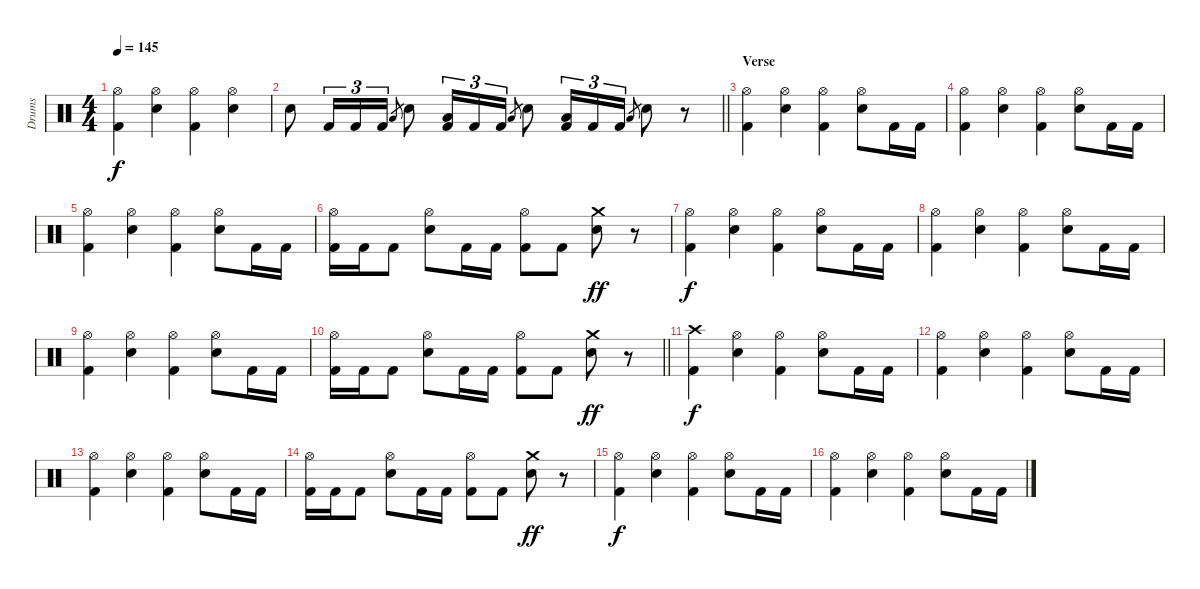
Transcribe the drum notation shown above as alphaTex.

\track ("Drums" "Drums") {instrument percussion}
\staff {score}
\articulation defaults
\ts (4 4)
\tempo 145
\clef neutral
\ks c
("Hi-Hat (open)" "Kick (hit) 2").4{dy f} ("Hi-Hat (open)" "Electric Snare (hit)").4 ("Hi-Hat (open)" "Kick (hit) 2").4 ("Hi-Hat (open)" "Electric Snare (hit)").4 |
\barLineRight lightlight "Electric Snare (hit)".8 "Kick (hit) 2".16{tu (3 2)} "Kick (hit) 2".16{tu (3 2)} "Kick (hit) 2".16{tu (3 2)} "Low Tom (hit)".8{gr} "Electric Snare (hit)".8
("Low Tom (hit)" "Kick (hit) 2").16{tu (3 2)} "Kick (hit) 2".16{tu (3 2)} "Kick (hit) 2".16{tu (3 2)} "Low Tom (hit)".8{gr} "Electric Snare (hit)".8 ("Low Tom (hit)" "Kick (hit) 2").16{tu (3 2)} "Kick (hit) 2".16{tu (3 2)} "Kick (hit) 2".16{tu (3 2)} "Low Tom (hit)".8{gr} "Electric Snare (hit)".8 r.8 |
\section ("" "Verse")
("Hi-Hat (open)" "Kick (hit) 2").4 ("Hi-Hat (open)" "Electric Snare (hit)").4 ("Hi-Hat (open)" "Kick (hit) 2").4 ("Hi-Hat (open)" "Electric Snare (hit)").8 "Kick (hit) 2".16 "Kick (hit) 2".16 |
("Hi-Hat (open)" "Kick (hit) 2").4 ("Hi-Hat (open)" "Electric Snare (hit)").4 ("Hi-Hat (open)" "Kick (hit) 2").4 ("Hi-Hat (open)" "Electric Snare (hit)").8 "Kick (hit) 2".16 "Kick (hit) 2".16 |
("Hi-Hat (open)" "Kick (hit) 2").4 ("Hi-Hat (open)" "Electric Snare (hit)").4 ("Hi-Hat (open)" "Kick (hit) 2").4 ("Hi-Hat (open)" "Electric Snare (hit)").8 "Kick (hit) 2".16 "Kick (hit) 2".16 |
("Hi-Hat (open)" "Kick (hit) 2").16 "Kick (hit) 2".16 "Kick (hit) 2".8 ("Hi-Hat (open)" "Electric Snare (hit)").8 "Kick (hit) 2".16 "Kick (hit) 2".16 ("Hi-Hat (open)" "Kick (hit) 2").8 "Kick (hit) 2".8 ("Crash medium (hit)" "Electric Snare (hit)").8{dy ff} r.8 |
("Hi-Hat (open)" "Kick (hit) 2").4{dy f} ("Hi-Hat (open)" "Electric Snare (hit)").4 ("Hi-Hat (open)" "Kick (hit) 2").4 ("Hi-Hat (open)" "Electric Snare (hit)").8 "Kick (hit) 2".16 "Kick (hit) 2".16 |
("Hi-Hat (open)" "Kick (hit) 2").4 ("Hi-Hat (open)" "Electric Snare (hit)").4 ("Hi-Hat (open)" "Kick (hit) 2").4 ("Hi-Hat (open)" "Electric Snare (hit)").8 "Kick (hit) 2".16 "Kick (hit) 2".16 |
("Hi-Hat (open)" "Kick (hit) 2").4 ("Hi-Hat (open)" "Electric Snare (hit)").4 ("Hi-Hat (open)" "Kick (hit) 2").4 ("Hi-Hat (open)" "Electric Snare (hit)").8 "Kick (hit) 2".16 "Kick (hit) 2".16 |
\barLineRight lightlight
("Hi-Hat (open)" "Kick (hit) 2").16 "Kick (hit) 2".16 "Kick (hit) 2".8 ("Hi-Hat (open)" "Electric Snare (hit)").8 "Kick (hit) 2".16 "Kick (hit) 2".16 ("Hi-Hat (open)" "Kick (hit) 2").8 "Kick (hit) 2".8 ("Crash medium (hit)" "Electric Snare (hit)").8{dy ff} r.8 |
("Crash high (hit)" "Kick (hit) 2").4{dy f} ("Hi-Hat (open)" "Electric Snare (hit)").4 ("Hi-Hat (open)" "Kick (hit) 2").4 ("Hi-Hat (open)" "Electric Snare (hit)").8 "Kick (hit) 2".16 "Kick (hit) 2".16 |
("Hi-Hat (open)" "Kick (hit) 2").4 ("Hi-Hat (open)" "Electric Snare (hit)").4 ("Hi-Hat (open)" "Kick (hit) 2").4 ("Hi-Hat (open)" "Electric Snare (hit)").8 "Kick (hit) 2".16 "Kick (hit) 2".16 |
("Hi-Hat (open)" "Kick (hit) 2").4 ("Hi-Hat (open)" "Electric Snare (hit)").4 ("Hi-Hat (open)" "Kick (hit) 2").4 ("Hi-Hat (open)" "Electric Snare (hit)").8 "Kick (hit) 2".16 "Kick (hit) 2".16 |
("Hi-Hat (open)" "Kick (hit) 2").16 "Kick (hit) 2".16 "Kick (hit) 2".8 ("Hi-Hat (open)" "Electric Snare (hit)").8 "Kick (hit) 2".16 "Kick (hit) 2".16 ("Hi-Hat (open)" "Kick (hit) 2").8 "Kick (hit) 2".8 ("Crash medium (hit)" "Electric Snare (hit)").8{dy ff} r.8 |
("Hi-Hat (open)" "Kick (hit) 2").4{dy f} ("Hi-Hat (open)" "Electric Snare (hit)").4 ("Hi-Hat (open)" "Kick (hit) 2").4 ("Hi-Hat (open)" "Electric Snare (hit)").8 "Kick (hit) 2".16 "Kick (hit) 2".16 |
("Hi-Hat (open)" "Kick (hit) 2").4 ("Hi-Hat (open)" "Electric Snare (hit)").4 ("Hi-Hat (open)" "Kick (hit) 2").4 ("Hi-Hat (open)" "Electric Snare (hit)").8 "Kick (hit) 2".16 "Kick (hit) 2".16
